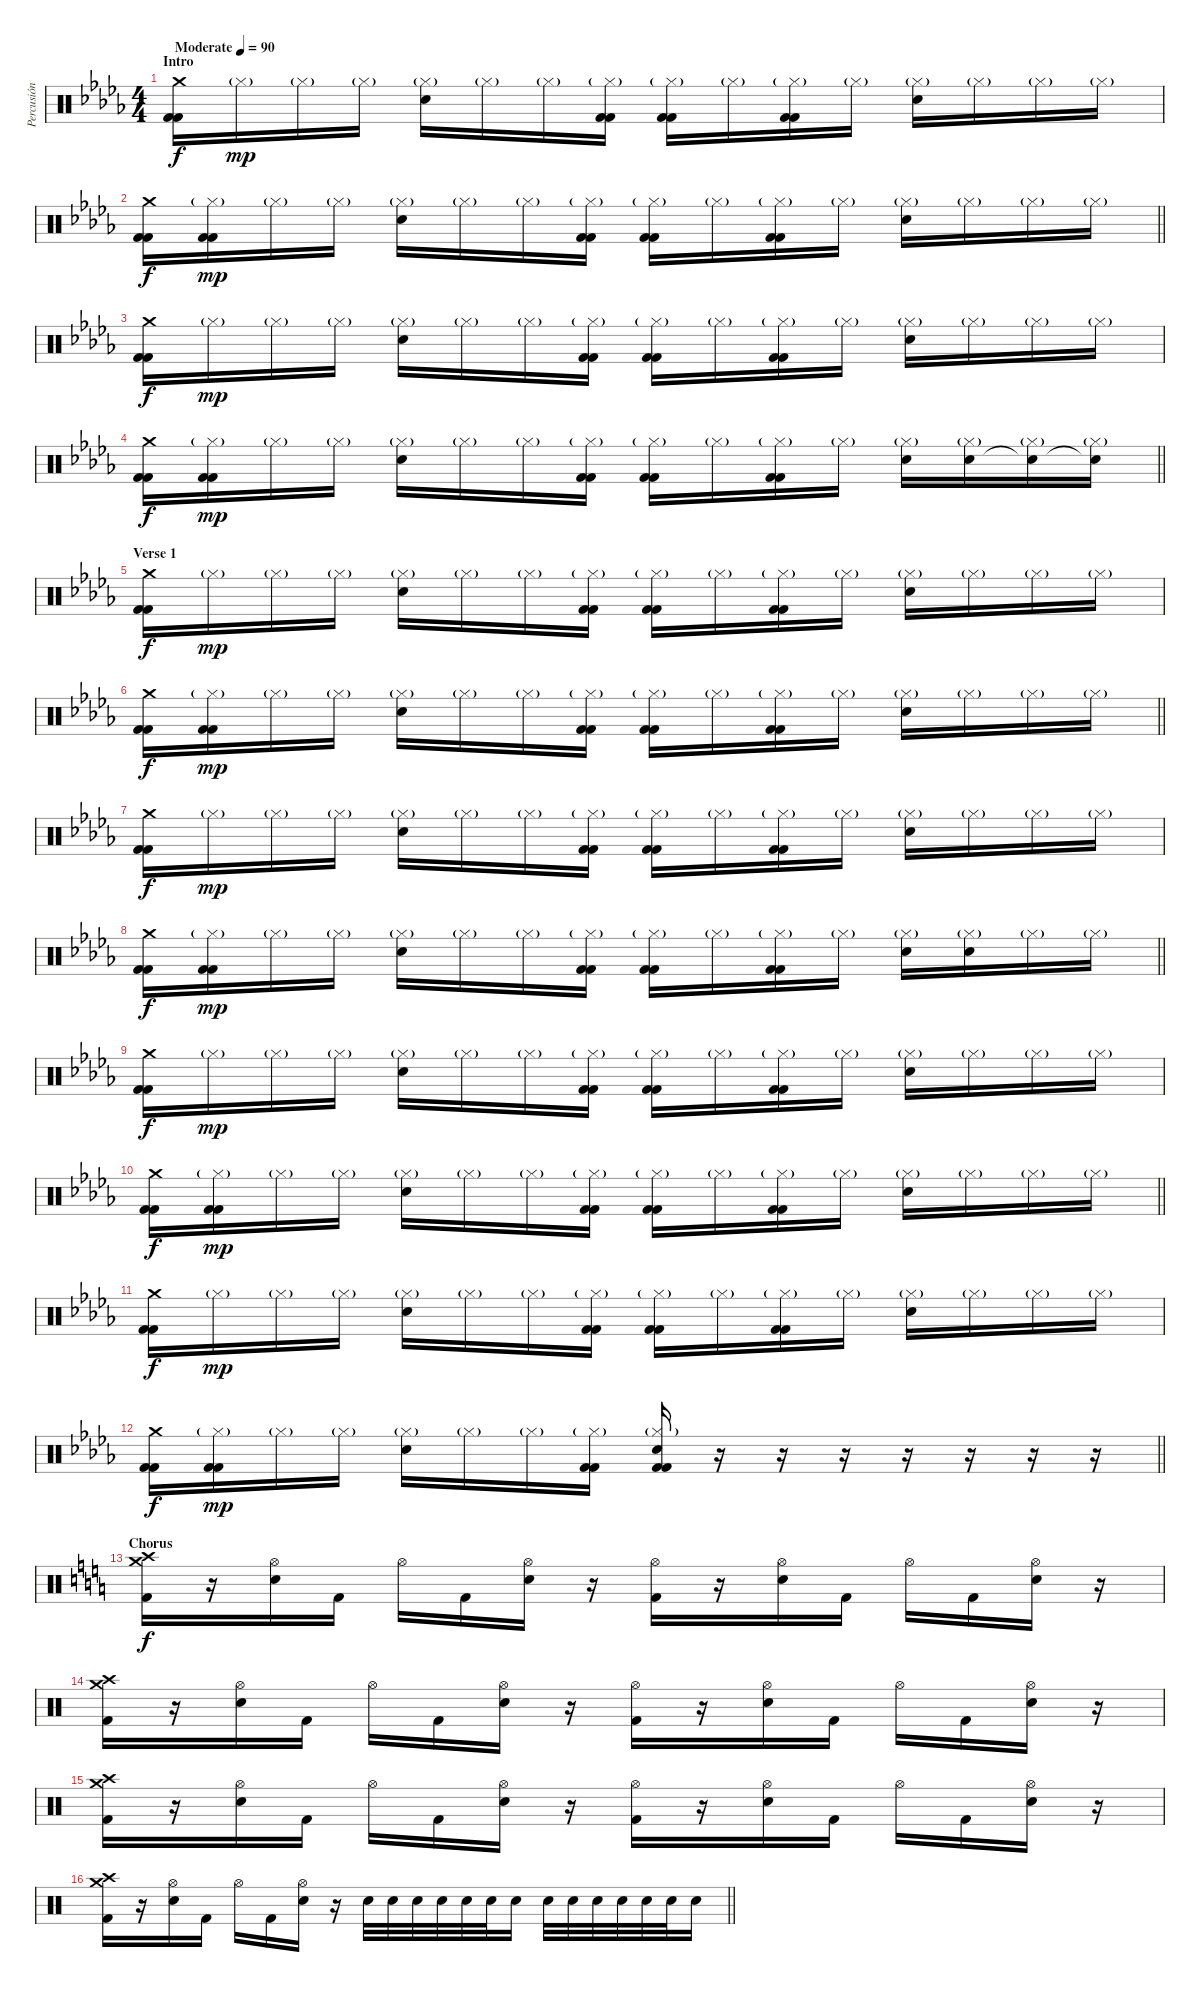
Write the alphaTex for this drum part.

\track ("Percusión" "Percusión") {instrument percussion}
\staff {score}
\articulation defaults
\ts (4 4)
\section ("" "Intro")
\tempo (90 "Moderate")
\clef neutral
\ks db
("Crash medium (hit)" "Kick (hit) 2" "Kick (hit) 2").16{dy f} "Hi-Hat (closed)"{g}.16{dy mp} "Hi-Hat (closed)"{g}.16 "Hi-Hat (closed)"{g}.16 ("Hi-Hat (closed)"{g} "Electric Snare (hit)").16 "Hi-Hat (closed)"{g}.16 "Hi-Hat (closed)"{g}.16 ("Hi-Hat (closed)"{g} "Kick (hit) 2" "Kick (hit) 2").16 ("Hi-Hat (closed)"{g} "Kick (hit) 2" "Kick (hit) 2").16 "Hi-Hat (closed)"{g}.16 ("Hi-Hat (closed)"{g} "Kick (hit) 2" "Kick (hit) 2").16 "Hi-Hat (closed)"{g}.16 ("Hi-Hat (closed)"{g} "Electric Snare (hit)").16 "Hi-Hat (closed)"{g}.16 "Hi-Hat (closed)"{g}.16 "Hi-Hat (closed)"{g}.16 |
\barLineRight lightlight
("Crash medium (hit)" "Kick (hit) 2" "Kick (hit) 2").16{dy f} ("Hi-Hat (closed)"{g} "Kick (hit) 2" "Kick (hit) 2").16{dy mp} "Hi-Hat (closed)"{g}.16 "Hi-Hat (closed)"{g}.16 ("Hi-Hat (closed)"{g} "Electric Snare (hit)").16 "Hi-Hat (closed)"{g}.16 "Hi-Hat (closed)"{g}.16 ("Hi-Hat (closed)"{g} "Kick (hit) 2" "Kick (hit) 2").16 ("Hi-Hat (closed)"{g} "Kick (hit) 2" "Kick (hit) 2").16 "Hi-Hat (closed)"{g}.16 ("Hi-Hat (closed)"{g} "Kick (hit) 2" "Kick (hit) 2").16 "Hi-Hat (closed)"{g}.16 ("Hi-Hat (closed)"{g} "Electric Snare (hit)").16 "Hi-Hat (closed)"{g}.16 "Hi-Hat (closed)"{g}.16 "Hi-Hat (closed)"{g}.16 |
("Crash medium (hit)" "Kick (hit) 2" "Kick (hit) 2").16{dy f} "Hi-Hat (closed)"{g}.16{dy mp} "Hi-Hat (closed)"{g}.16 "Hi-Hat (closed)"{g}.16 ("Hi-Hat (closed)"{g} "Electric Snare (hit)").16 "Hi-Hat (closed)"{g}.16 "Hi-Hat (closed)"{g}.16 ("Hi-Hat (closed)"{g} "Kick (hit) 2" "Kick (hit) 2").16 ("Hi-Hat (closed)"{g} "Kick (hit) 2" "Kick (hit) 2").16 "Hi-Hat (closed)"{g}.16 ("Hi-Hat (closed)"{g} "Kick (hit) 2" "Kick (hit) 2").16 "Hi-Hat (closed)"{g}.16 ("Hi-Hat (closed)"{g} "Electric Snare (hit)").16 "Hi-Hat (closed)"{g}.16 "Hi-Hat (closed)"{g}.16 "Hi-Hat (closed)"{g}.16 |
\barLineRight lightlight
("Crash medium (hit)" "Kick (hit) 2" "Kick (hit) 2").16{dy f} ("Hi-Hat (closed)"{g} "Kick (hit) 2" "Kick (hit) 2").16{dy mp} "Hi-Hat (closed)"{g}.16 "Hi-Hat (closed)"{g}.16 ("Hi-Hat (closed)"{g} "Electric Snare (hit)").16 "Hi-Hat (closed)"{g}.16 "Hi-Hat (closed)"{g}.16 ("Hi-Hat (closed)"{g} "Kick (hit) 2" "Kick (hit) 2").16 ("Hi-Hat (closed)"{g} "Kick (hit) 2" "Kick (hit) 2").16 "Hi-Hat (closed)"{g}.16 ("Hi-Hat (closed)"{g} "Kick (hit) 2" "Kick (hit) 2").16 "Hi-Hat (closed)"{g}.16 ("Hi-Hat (closed)"{g} "Electric Snare (hit)").16 ("Hi-Hat (closed)"{g} "Electric Snare (hit)").16 ("Hi-Hat (closed)"{g} "Electric Snare (hit)"{t}).16 ("Hi-Hat (closed)"{g} "Electric Snare (hit)"{t}).16 |
\section ("" "Verse 1")
("Crash medium (hit)" "Kick (hit) 2" "Kick (hit) 2").16{dy f} "Hi-Hat (closed)"{g}.16{dy mp} "Hi-Hat (closed)"{g}.16 "Hi-Hat (closed)"{g}.16 ("Hi-Hat (closed)"{g} "Electric Snare (hit)").16 "Hi-Hat (closed)"{g}.16 "Hi-Hat (closed)"{g}.16 ("Hi-Hat (closed)"{g} "Kick (hit) 2" "Kick (hit) 2").16 ("Hi-Hat (closed)"{g} "Kick (hit) 2" "Kick (hit) 2").16 "Hi-Hat (closed)"{g}.16 ("Hi-Hat (closed)"{g} "Kick (hit) 2" "Kick (hit) 2").16 "Hi-Hat (closed)"{g}.16 ("Hi-Hat (closed)"{g} "Electric Snare (hit)").16 "Hi-Hat (closed)"{g}.16 "Hi-Hat (closed)"{g}.16 "Hi-Hat (closed)"{g}.16 |
\barLineRight lightlight
("Crash medium (hit)" "Kick (hit) 2" "Kick (hit) 2").16{dy f} ("Hi-Hat (closed)"{g} "Kick (hit) 2" "Kick (hit) 2").16{dy mp} "Hi-Hat (closed)"{g}.16 "Hi-Hat (closed)"{g}.16 ("Hi-Hat (closed)"{g} "Electric Snare (hit)").16 "Hi-Hat (closed)"{g}.16 "Hi-Hat (closed)"{g}.16 ("Hi-Hat (closed)"{g} "Kick (hit) 2" "Kick (hit) 2").16 ("Hi-Hat (closed)"{g} "Kick (hit) 2" "Kick (hit) 2").16 "Hi-Hat (closed)"{g}.16 ("Hi-Hat (closed)"{g} "Kick (hit) 2" "Kick (hit) 2").16 "Hi-Hat (closed)"{g}.16 ("Hi-Hat (closed)"{g} "Electric Snare (hit)").16 "Hi-Hat (closed)"{g}.16 "Hi-Hat (closed)"{g}.16 "Hi-Hat (closed)"{g}.16 |
("Crash medium (hit)" "Kick (hit) 2" "Kick (hit) 2").16{dy f} "Hi-Hat (closed)"{g}.16{dy mp} "Hi-Hat (closed)"{g}.16 "Hi-Hat (closed)"{g}.16 ("Hi-Hat (closed)"{g} "Electric Snare (hit)").16 "Hi-Hat (closed)"{g}.16 "Hi-Hat (closed)"{g}.16 ("Hi-Hat (closed)"{g} "Kick (hit) 2" "Kick (hit) 2").16 ("Hi-Hat (closed)"{g} "Kick (hit) 2" "Kick (hit) 2").16 "Hi-Hat (closed)"{g}.16 ("Hi-Hat (closed)"{g} "Kick (hit) 2" "Kick (hit) 2").16 "Hi-Hat (closed)"{g}.16 ("Hi-Hat (closed)"{g} "Electric Snare (hit)").16 "Hi-Hat (closed)"{g}.16 "Hi-Hat (closed)"{g}.16 "Hi-Hat (closed)"{g}.16 |
\barLineRight lightlight
("Crash medium (hit)" "Kick (hit) 2" "Kick (hit) 2").16{dy f} ("Hi-Hat (closed)"{g} "Kick (hit) 2" "Kick (hit) 2").16{dy mp} "Hi-Hat (closed)"{g}.16 "Hi-Hat (closed)"{g}.16 ("Hi-Hat (closed)"{g} "Electric Snare (hit)").16 "Hi-Hat (closed)"{g}.16 "Hi-Hat (closed)"{g}.16 ("Hi-Hat (closed)"{g} "Kick (hit) 2" "Kick (hit) 2").16 ("Hi-Hat (closed)"{g} "Kick (hit) 2" "Kick (hit) 2").16 "Hi-Hat (closed)"{g}.16 ("Hi-Hat (closed)"{g} "Kick (hit) 2" "Kick (hit) 2").16 "Hi-Hat (closed)"{g}.16 ("Hi-Hat (closed)"{g} "Electric Snare (hit)").16 ("Hi-Hat (closed)"{g} "Electric Snare (hit)").16 "Hi-Hat (closed)"{g}.16 "Hi-Hat (closed)"{g}.16 |
("Crash medium (hit)" "Kick (hit) 2" "Kick (hit) 2").16{dy f} "Hi-Hat (closed)"{g}.16{dy mp} "Hi-Hat (closed)"{g}.16 "Hi-Hat (closed)"{g}.16 ("Hi-Hat (closed)"{g} "Electric Snare (hit)").16 "Hi-Hat (closed)"{g}.16 "Hi-Hat (closed)"{g}.16 ("Hi-Hat (closed)"{g} "Kick (hit) 2" "Kick (hit) 2").16 ("Hi-Hat (closed)"{g} "Kick (hit) 2" "Kick (hit) 2").16 "Hi-Hat (closed)"{g}.16 ("Hi-Hat (closed)"{g} "Kick (hit) 2" "Kick (hit) 2").16 "Hi-Hat (closed)"{g}.16 ("Hi-Hat (closed)"{g} "Electric Snare (hit)").16 "Hi-Hat (closed)"{g}.16 "Hi-Hat (closed)"{g}.16 "Hi-Hat (closed)"{g}.16 |
\barLineRight lightlight
("Crash medium (hit)" "Kick (hit) 2" "Kick (hit) 2").16{dy f} ("Hi-Hat (closed)"{g} "Kick (hit) 2" "Kick (hit) 2").16{dy mp} "Hi-Hat (closed)"{g}.16 "Hi-Hat (closed)"{g}.16 ("Hi-Hat (closed)"{g} "Electric Snare (hit)").16 "Hi-Hat (closed)"{g}.16 "Hi-Hat (closed)"{g}.16 ("Hi-Hat (closed)"{g} "Kick (hit) 2" "Kick (hit) 2").16 ("Hi-Hat (closed)"{g} "Kick (hit) 2" "Kick (hit) 2").16 "Hi-Hat (closed)"{g}.16 ("Hi-Hat (closed)"{g} "Kick (hit) 2" "Kick (hit) 2").16 "Hi-Hat (closed)"{g}.16 ("Hi-Hat (closed)"{g} "Electric Snare (hit)").16 "Hi-Hat (closed)"{g}.16 "Hi-Hat (closed)"{g}.16 "Hi-Hat (closed)"{g}.16 |
("Crash medium (hit)" "Kick (hit) 2" "Kick (hit) 2").16{dy f} "Hi-Hat (closed)"{g}.16{dy mp} "Hi-Hat (closed)"{g}.16 "Hi-Hat (closed)"{g}.16 ("Hi-Hat (closed)"{g} "Electric Snare (hit)").16 "Hi-Hat (closed)"{g}.16 "Hi-Hat (closed)"{g}.16 ("Hi-Hat (closed)"{g} "Kick (hit) 2" "Kick (hit) 2").16 ("Hi-Hat (closed)"{g} "Kick (hit) 2" "Kick (hit) 2").16 "Hi-Hat (closed)"{g}.16 ("Hi-Hat (closed)"{g} "Kick (hit) 2" "Kick (hit) 2").16 "Hi-Hat (closed)"{g}.16 ("Hi-Hat (closed)"{g} "Electric Snare (hit)").16 "Hi-Hat (closed)"{g}.16 "Hi-Hat (closed)"{g}.16 "Hi-Hat (closed)"{g}.16 |
\barLineRight lightlight
("Crash medium (hit)" "Kick (hit) 2" "Kick (hit) 2").16{dy f} ("Hi-Hat (closed)"{g} "Kick (hit) 2" "Kick (hit) 2").16{dy mp} "Hi-Hat (closed)"{g}.16 "Hi-Hat (closed)"{g}.16 ("Hi-Hat (closed)"{g} "Electric Snare (hit)").16 "Hi-Hat (closed)"{g}.16 "Hi-Hat (closed)"{g}.16 ("Hi-Hat (closed)"{g} "Kick (hit) 2" "Kick (hit) 2").16 ("Hi-Hat (closed)"{g} "Electric Snare (hit)" "Kick (hit) 2" "Kick (hit) 2").16 r.16 r.16 r.16 r.16 r.16 r.16 r.16 |
\section ("" "Chorus")
\ks c
("Crash high (hit)" "Crash medium (hit)" "Kick (hit) 2").16{dy f} r.16 ("Hi-Hat (open)" "Electric Snare (hit)").16 "Kick (hit) 2".16 "Hi-Hat (open)".16 "Kick (hit) 2".16 ("Hi-Hat (open)" "Electric Snare (hit)").16 r.16 ("Hi-Hat (open)" "Kick (hit) 2").16 r.16 ("Hi-Hat (open)" "Electric Snare (hit)").16 "Kick (hit) 2".16 "Hi-Hat (open)".16 "Kick (hit) 2".16 ("Hi-Hat (open)" "Electric Snare (hit)").16 r.16 |
("Crash high (hit)" "Crash medium (hit)" "Kick (hit) 2").16 r.16 ("Hi-Hat (open)" "Electric Snare (hit)").16 "Kick (hit) 2".16 "Hi-Hat (open)".16 "Kick (hit) 2".16 ("Hi-Hat (open)" "Electric Snare (hit)").16 r.16 ("Hi-Hat (open)" "Kick (hit) 2").16 r.16 ("Hi-Hat (open)" "Electric Snare (hit)").16 "Kick (hit) 2".16 "Hi-Hat (open)".16 "Kick (hit) 2".16 ("Hi-Hat (open)" "Electric Snare (hit)").16 r.16 |
("Crash high (hit)" "Crash medium (hit)" "Kick (hit) 2").16 r.16 ("Hi-Hat (open)" "Electric Snare (hit)").16 "Kick (hit) 2".16 "Hi-Hat (open)".16 "Kick (hit) 2".16 ("Hi-Hat (open)" "Electric Snare (hit)").16 r.16 ("Hi-Hat (open)" "Kick (hit) 2").16 r.16 ("Hi-Hat (open)" "Electric Snare (hit)").16 "Kick (hit) 2".16 "Hi-Hat (open)".16 "Kick (hit) 2".16 ("Hi-Hat (open)" "Electric Snare (hit)").16 r.16 |
\barLineRight lightlight
("Crash high (hit)" "Crash medium (hit)" "Kick (hit) 2").16 r.16 ("Hi-Hat (open)" "Electric Snare (hit)").16 "Kick (hit) 2".16 "Hi-Hat (open)".16 "Kick (hit) 2".16 ("Hi-Hat (open)" "Electric Snare (hit)").16 r.16 "Snare (hit) 2".32 "Snare (hit) 2".32 "Snare (hit) 2".32 "Snare (hit) 2".32 "Snare (hit) 2".32 "Snare (hit) 2".32 "Snare (hit) 2".16 "Snare (hit) 2".32 "Snare (hit) 2".32 "Snare (hit) 2".32 "Snare (hit) 2".32 "Snare (hit) 2".32 "Snare (hit) 2".32 "Snare (hit) 2".16
